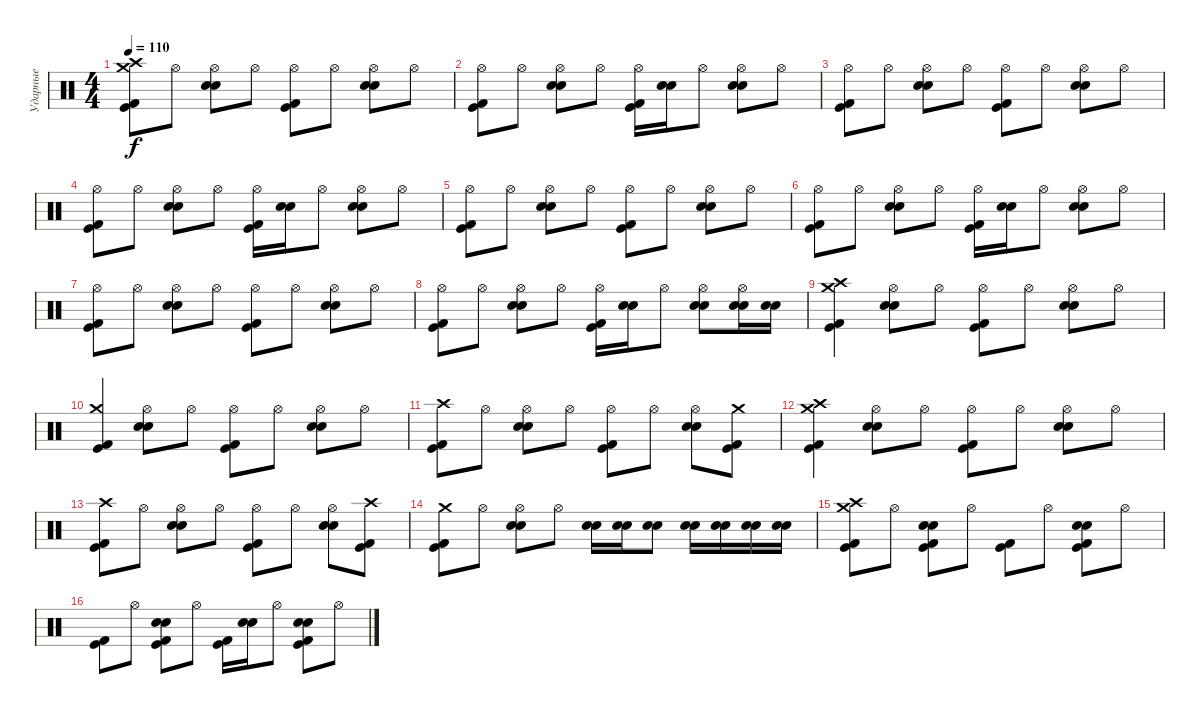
\track ("Ударные" "Ударные") {instrument percussion}
\staff {score}
\articulation defaults
\ts (4 4)
\tempo 110
\clef neutral
\ks c
("Crash high (hit)" "Kick (hit) 2" "Crash medium (hit)" "Kick (hit)").8{dy f} "Hi-Hat (open)".8 ("Hi-Hat (open)" "Snare (hit) 2" "Electric Snare (hit)").8 "Hi-Hat (open)".8 ("Hi-Hat (open)" "Kick (hit) 2" "Kick (hit)").8 "Hi-Hat (open)".8 ("Hi-Hat (open)" "Snare (hit) 2" "Electric Snare (hit)").8 "Hi-Hat (open)".8 |
("Hi-Hat (open)" "Kick (hit) 2" "Kick (hit)").8 "Hi-Hat (open)".8 ("Hi-Hat (open)" "Snare (hit) 2" "Electric Snare (hit)").8 "Hi-Hat (open)".8 ("Hi-Hat (open)" "Kick (hit) 2" "Kick (hit)").16 ("Snare (hit) 2" "Electric Snare (hit)").16 "Hi-Hat (open)".8 ("Hi-Hat (open)" "Snare (hit) 2" "Electric Snare (hit)").8 "Hi-Hat (open)".8 |
("Hi-Hat (open)" "Kick (hit)" "Kick (hit) 2").8 "Hi-Hat (open)".8 ("Hi-Hat (open)" "Snare (hit) 2" "Electric Snare (hit)").8 "Hi-Hat (open)".8 ("Hi-Hat (open)" "Kick (hit) 2" "Kick (hit)").8 "Hi-Hat (open)".8 ("Hi-Hat (open)" "Snare (hit) 2" "Electric Snare (hit)").8 "Hi-Hat (open)".8 |
("Hi-Hat (open)" "Kick (hit) 2" "Kick (hit)").8 "Hi-Hat (open)".8 ("Hi-Hat (open)" "Snare (hit) 2" "Electric Snare (hit)").8 "Hi-Hat (open)".8 ("Hi-Hat (open)" "Kick (hit) 2" "Kick (hit)").16 ("Snare (hit) 2" "Electric Snare (hit)").16 "Hi-Hat (open)".8 ("Hi-Hat (open)" "Snare (hit) 2" "Electric Snare (hit)").8 "Hi-Hat (open)".8 |
("Hi-Hat (open)" "Kick (hit)" "Kick (hit) 2").8 "Hi-Hat (open)".8 ("Hi-Hat (open)" "Snare (hit) 2" "Electric Snare (hit)").8 "Hi-Hat (open)".8 ("Hi-Hat (open)" "Kick (hit) 2" "Kick (hit)").8 "Hi-Hat (open)".8 ("Hi-Hat (open)" "Snare (hit) 2" "Electric Snare (hit)").8 "Hi-Hat (open)".8 |
("Hi-Hat (open)" "Kick (hit) 2" "Kick (hit)").8 "Hi-Hat (open)".8 ("Hi-Hat (open)" "Snare (hit) 2" "Electric Snare (hit)").8 "Hi-Hat (open)".8 ("Hi-Hat (open)" "Kick (hit) 2" "Kick (hit)").16 ("Snare (hit) 2" "Electric Snare (hit)").16 "Hi-Hat (open)".8 ("Hi-Hat (open)" "Snare (hit) 2" "Electric Snare (hit)").8 "Hi-Hat (open)".8 |
("Hi-Hat (open)" "Kick (hit)" "Kick (hit) 2").8 "Hi-Hat (open)".8 ("Hi-Hat (open)" "Snare (hit) 2" "Electric Snare (hit)").8 "Hi-Hat (open)".8 ("Hi-Hat (open)" "Kick (hit) 2" "Kick (hit)").8 "Hi-Hat (open)".8 ("Hi-Hat (open)" "Snare (hit) 2" "Electric Snare (hit)").8 "Hi-Hat (open)".8 |
("Hi-Hat (open)" "Kick (hit) 2" "Kick (hit)").8 "Hi-Hat (open)".8 ("Hi-Hat (open)" "Snare (hit) 2" "Electric Snare (hit)").8 "Hi-Hat (open)".8 ("Hi-Hat (open)" "Kick (hit) 2" "Kick (hit)").16 ("Snare (hit) 2" "Electric Snare (hit)").16 "Hi-Hat (open)".8 ("Hi-Hat (open)" "Snare (hit) 2" "Electric Snare (hit)").8 ("Hi-Hat (open)" "Snare (hit) 2" "Electric Snare (hit)").16 ("Snare (hit) 2" "Electric Snare (hit)").16 |
("Crash high (hit)" "Kick (hit) 2" "Kick (hit)" "Crash medium (hit)").4 ("Hi-Hat (open)" "Snare (hit) 2" "Electric Snare (hit)").8 "Hi-Hat (open)".8 ("Hi-Hat (open)" "Kick (hit) 2" "Kick (hit)").8 "Hi-Hat (open)".8 ("Hi-Hat (open)" "Snare (hit) 2" "Electric Snare (hit)").8 "Hi-Hat (open)".8 |
("Crash medium (hit)" "Kick (hit) 2" "Kick (hit)").4 ("Hi-Hat (open)" "Snare (hit) 2" "Electric Snare (hit)").8 "Hi-Hat (open)".8 ("Hi-Hat (open)" "Kick (hit) 2" "Kick (hit)").8 "Hi-Hat (open)".8 ("Hi-Hat (open)" "Snare (hit) 2" "Electric Snare (hit)").8 "Hi-Hat (open)".8 |
("Crash high (hit)" "Kick (hit) 2" "Kick (hit)").8 "Hi-Hat (open)".8 ("Hi-Hat (open)" "Snare (hit) 2" "Electric Snare (hit)").8 "Hi-Hat (open)".8 ("Hi-Hat (open)" "Kick (hit) 2" "Kick (hit)").8 "Hi-Hat (open)".8 ("Hi-Hat (open)" "Snare (hit) 2" "Electric Snare (hit)").8 ("Crash medium (hit)" "Kick (hit)" "Kick (hit) 2").8 |
("Crash high (hit)" "Kick (hit) 2" "Kick (hit)" "Crash medium (hit)").4 ("Hi-Hat (open)" "Snare (hit) 2" "Electric Snare (hit)").8 "Hi-Hat (open)".8 ("Hi-Hat (open)" "Kick (hit) 2" "Kick (hit)").8 "Hi-Hat (open)".8 ("Hi-Hat (open)" "Snare (hit) 2" "Electric Snare (hit)").8 "Hi-Hat (open)".8 |
("Crash high (hit)" "Kick (hit) 2" "Kick (hit)").8 "Hi-Hat (open)".8 ("Hi-Hat (open)" "Snare (hit) 2" "Electric Snare (hit)").8 "Hi-Hat (open)".8 ("Hi-Hat (open)" "Kick (hit) 2" "Kick (hit)").8 "Hi-Hat (open)".8 ("Hi-Hat (open)" "Snare (hit) 2" "Electric Snare (hit)").8 ("Crash high (hit)" "Kick (hit) 2" "Kick (hit)").8 |
("Crash medium (hit)" "Kick (hit) 2" "Kick (hit)").8 "Hi-Hat (open)".8 ("Hi-Hat (open)" "Snare (hit) 2" "Electric Snare (hit)").8 "Hi-Hat (open)".8 ("Snare (hit) 2" "Electric Snare (hit)").16 ("Snare (hit) 2" "Electric Snare (hit)").16 ("Snare (hit) 2" "Electric Snare (hit)").8 ("Snare (hit) 2" "Electric Snare (hit)").16 ("Snare (hit) 2" "Electric Snare (hit)").16 ("Snare (hit) 2" "Electric Snare (hit)").16 ("Snare (hit) 2" "Electric Snare (hit)").16 |
("Crash high (hit)" "Kick (hit) 2" "Crash medium (hit)" "Kick (hit)").8 "Hi-Hat (open)".8 ("Snare (hit) 2" "Electric Snare (hit)" "Kick (hit)" "Kick (hit) 2").8 "Hi-Hat (open)".8 ("Kick (hit) 2" "Kick (hit)").8 "Hi-Hat (open)".8 ("Snare (hit) 2" "Electric Snare (hit)" "Kick (hit)" "Kick (hit) 2").8 "Hi-Hat (open)".8 |
("Kick (hit) 2" "Kick (hit)").8 "Hi-Hat (open)".8 ("Snare (hit) 2" "Electric Snare (hit)" "Kick (hit)" "Kick (hit) 2").8 "Hi-Hat (open)".8 ("Kick (hit) 2" "Kick (hit)").16 ("Snare (hit) 2" "Electric Snare (hit)").16 "Hi-Hat (open)".8 ("Snare (hit) 2" "Electric Snare (hit)" "Kick (hit)" "Kick (hit) 2").8 "Hi-Hat (open)".8
